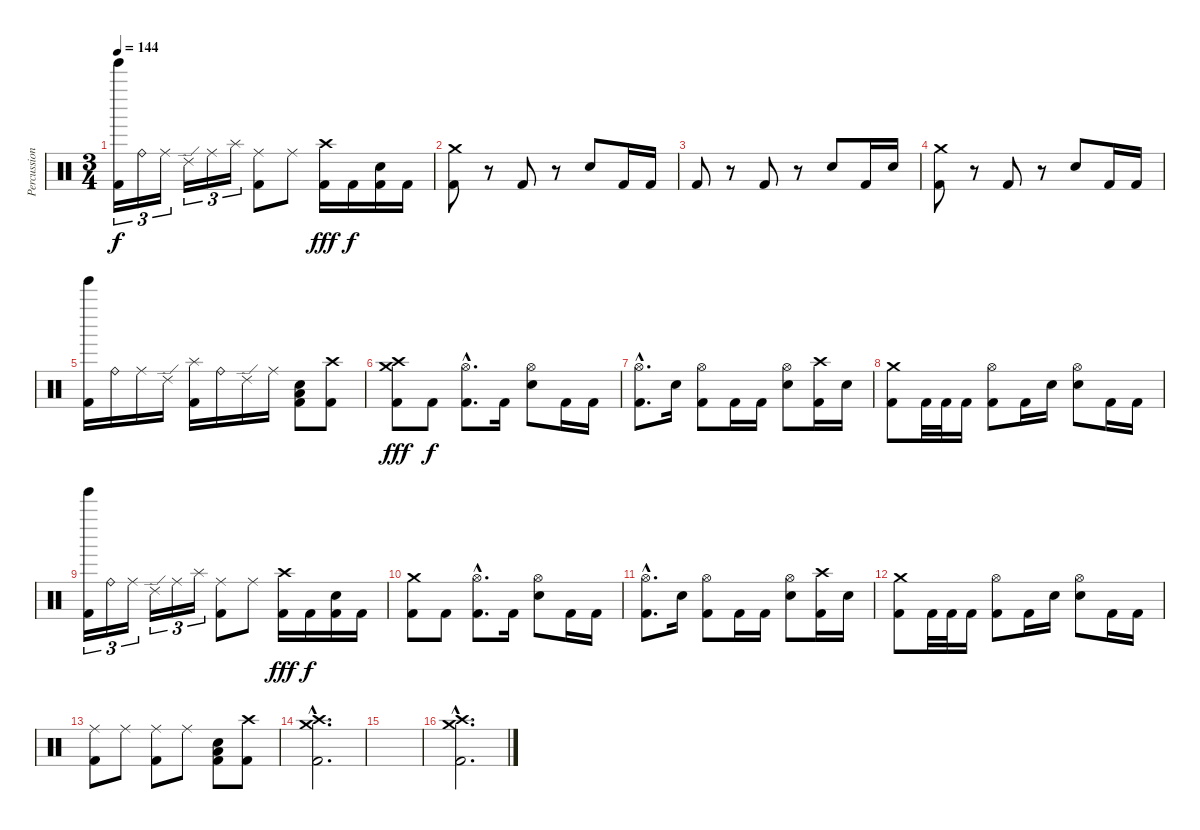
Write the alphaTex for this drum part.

\track ("Percussion" "Percussion") {instrument percussion}
\staff {score}
\articulation defaults
\ts (3 4)
\tempo 144
\clef neutral
\ks c
("Tinkle Bell (hit)" "Kick (hit) 2").16{tu (3 2) dy f} "Ride (bell)".16{tu (3 2)} "Ride (middle)".16{tu (3 2)} "Ride (edge) 2".16{tu (3 2)} "Ride (middle)".16{tu (3 2)} "Splash (hit)".16{tu (3 2)} ("Ride (middle)" "Kick (hit) 2").8 "Ride (middle)".8 ("Crash high (hit)" "Kick (hit) 2").16{dy fff} "Kick (hit) 2".16{dy f} ("Electric Snare (hit)" "Kick (hit) 2").16 "Kick (hit) 2".16 |
("Crash medium (hit)" "Kick (hit) 2").8 r.8 "Kick (hit) 2".8 r.8 "Electric Snare (hit)".8 "Kick (hit) 2".16 "Kick (hit) 2".16 |
"Kick (hit) 2".8 r.8 "Kick (hit) 2".8 r.8 "Electric Snare (hit)".8 "Kick (hit) 2".16 "Electric Snare (hit)".16 |
("Crash medium (hit)" "Kick (hit) 2").8 r.8 "Kick (hit) 2".8 r.8 "Electric Snare (hit)".8 "Kick (hit) 2".16 "Kick (hit) 2".16 |
("Tinkle Bell (hit)" "Kick (hit) 2").16 "Ride (bell)".16 "Ride (middle)".16 "Ride (edge) 2".16 ("Splash (hit)" "Kick (hit) 2").16 "Ride (bell)".16 "Ride (edge) 2".16 "Ride (middle)".16 ("Low Tom (hit)" "Electric Snare (hit)" "Kick (hit) 2").8 ("Crash high (hit)" "Kick (hit) 2").8 |
("Crash medium (hit)" "Crash high (hit)" "Kick (hit) 2").8{dy fff} "Kick (hit) 2".8{dy f} ("Hi-Hat (open)"{hac} "Kick (hit) 2"{hac}).8{d} "Kick (hit) 2".16 ("Hi-Hat (open)" "Electric Snare (hit)").8 "Kick (hit) 2".16 "Kick (hit) 2".16 |
("Hi-Hat (open)"{hac} "Kick (hit) 2"{hac}).8{d} "Electric Snare (hit)".16 ("Hi-Hat (open)" "Kick (hit) 2").8 "Kick (hit) 2".16 "Kick (hit) 2".16 ("Hi-Hat (open)" "Electric Snare (hit)").8 ("Crash high (hit)" "Kick (hit) 2").16 "Electric Snare (hit)".16 |
("Crash medium (hit)" "Kick (hit) 2").8 "Kick (hit) 2".32 "Kick (hit) 2".32 "Kick (hit) 2".16 ("Hi-Hat (open)" "Kick (hit) 2").8 "Kick (hit) 2".16 "Electric Snare (hit)".16 ("Hi-Hat (open)" "Electric Snare (hit)").8 "Kick (hit) 2".16 "Kick (hit) 2".16 |
("Tinkle Bell (hit)" "Kick (hit) 2").16{tu (3 2)} "Ride (bell)".16{tu (3 2)} "Ride (middle)".16{tu (3 2)} "Ride (edge) 2".16{tu (3 2)} "Ride (middle)".16{tu (3 2)} "Splash (hit)".16{tu (3 2)} ("Ride (middle)" "Kick (hit) 2").8 "Ride (middle)".8 ("Crash high (hit)" "Kick (hit) 2").16{dy fff} "Kick (hit) 2".16{dy f} ("Electric Snare (hit)" "Kick (hit) 2").16 "Kick (hit) 2".16 |
("Crash medium (hit)" "Kick (hit) 2").8 "Kick (hit) 2".8 ("Hi-Hat (open)"{hac} "Kick (hit) 2"{hac}).8{d} "Kick (hit) 2".16 ("Hi-Hat (open)" "Electric Snare (hit)").8 "Kick (hit) 2".16 "Kick (hit) 2".16 |
("Hi-Hat (open)"{hac} "Kick (hit) 2"{hac}).8{d} "Electric Snare (hit)".16 ("Hi-Hat (open)" "Kick (hit) 2").8 "Kick (hit) 2".16 "Kick (hit) 2".16 ("Hi-Hat (open)" "Electric Snare (hit)").8 ("Crash high (hit)" "Kick (hit) 2").16 "Electric Snare (hit)".16 |
("Crash medium (hit)" "Kick (hit) 2").8 "Kick (hit) 2".32 "Kick (hit) 2".32 "Kick (hit) 2".16 ("Hi-Hat (open)" "Kick (hit) 2").8 "Kick (hit) 2".16 "Electric Snare (hit)".16 ("Hi-Hat (open)" "Electric Snare (hit)").8 "Kick (hit) 2".16 "Kick (hit) 2".16 |
("Ride (middle)" "Kick (hit) 2").8 "Ride (middle)".8 ("Ride (middle)" "Kick (hit) 2").8 "Ride (middle)".8 ("Low Tom (hit)" "Electric Snare (hit)" "Kick (hit) 2").8 ("Crash high (hit)" "Kick (hit) 2").8 |
("Crash medium (hit)"{hac} "Crash high (hit)"{hac} "Kick (hit) 2"{hac}).2{d} |
|
("Crash medium (hit)"{hac} "Crash high (hit)"{hac} "Kick (hit) 2"{hac}).2{d}
